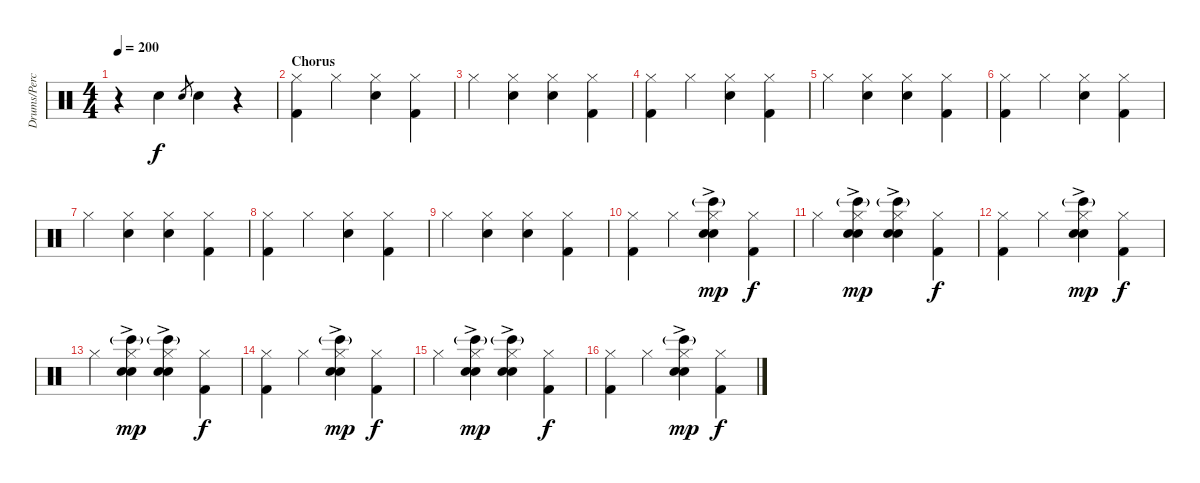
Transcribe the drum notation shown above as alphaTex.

\track ("Drums/Percussion" "Drums/Perc") {instrument percussion}
\staff {score}
\articulation defaults
\ts (4 4)
\tempo 200
\clef neutral
\ks c
r.4{dy f} "Snare (hit) 2".4 "Snare (hit) 2".8{gr} "Snare (hit) 2".4 r.4 |
\section ("" "Chorus")
("Kick (hit) 2" "Hi-Hat (closed)").4 "Hi-Hat (closed)".4 ("Snare (hit) 2" "Hi-Hat (closed)").4 ("Kick (hit) 2" "Hi-Hat (closed)").4 |
"Hi-Hat (closed)".4 ("Snare (hit) 2" "Hi-Hat (closed)").4 ("Snare (hit) 2" "Hi-Hat (closed)").4 ("Kick (hit) 2" "Hi-Hat (closed)").4 |
("Kick (hit) 2" "Hi-Hat (closed)").4 "Hi-Hat (closed)".4 ("Snare (hit) 2" "Hi-Hat (closed)").4 ("Kick (hit) 2" "Hi-Hat (closed)").4 |
"Hi-Hat (closed)".4 ("Snare (hit) 2" "Hi-Hat (closed)").4 ("Snare (hit) 2" "Hi-Hat (closed)").4 ("Kick (hit) 2" "Hi-Hat (closed)").4 |
("Kick (hit) 2" "Hi-Hat (closed)").4 "Hi-Hat (closed)".4 ("Snare (hit) 2" "Hi-Hat (closed)").4 ("Kick (hit) 2" "Hi-Hat (closed)").4 |
"Hi-Hat (closed)".4 ("Snare (hit) 2" "Hi-Hat (closed)").4 ("Snare (hit) 2" "Hi-Hat (closed)").4 ("Kick (hit) 2" "Hi-Hat (closed)").4 |
("Kick (hit) 2" "Hi-Hat (closed)").4 "Hi-Hat (closed)".4 ("Snare (hit) 2" "Hi-Hat (closed)").4 ("Kick (hit) 2" "Hi-Hat (closed)").4 |
"Hi-Hat (closed)".4 ("Snare (hit) 2" "Hi-Hat (closed)").4 ("Snare (hit) 2" "Hi-Hat (closed)").4 ("Kick (hit) 2" "Hi-Hat (closed)").4 |
("Kick (hit) 2" "Hi-Hat (closed)").4 "Hi-Hat (closed)".4 ("Snare (hit) 2" "Hi-Hat (closed)" "Hand Clap (hit)"{ac} "Bongo High (hit)"{g}).4{dy mp} ("Kick (hit) 2" "Hi-Hat (closed)").4{dy f} |
"Hi-Hat (closed)".4 ("Snare (hit) 2" "Hi-Hat (closed)" "Hand Clap (hit)"{ac} "Bongo High (hit)"{g}).4{dy mp} ("Snare (hit) 2" "Hi-Hat (closed)" "Hand Clap (hit)"{ac} "Bongo High (hit)"{g}).4 ("Kick (hit) 2" "Hi-Hat (closed)").4{dy f} |
("Kick (hit) 2" "Hi-Hat (closed)").4 "Hi-Hat (closed)".4 ("Snare (hit) 2" "Hi-Hat (closed)" "Hand Clap (hit)"{ac} "Bongo High (hit)"{g}).4{dy mp} ("Kick (hit) 2" "Hi-Hat (closed)").4{dy f} |
"Hi-Hat (closed)".4 ("Snare (hit) 2" "Hi-Hat (closed)" "Hand Clap (hit)"{ac} "Bongo High (hit)"{g}).4{dy mp} ("Snare (hit) 2" "Hi-Hat (closed)" "Hand Clap (hit)"{ac} "Bongo High (hit)"{g}).4 ("Kick (hit) 2" "Hi-Hat (closed)").4{dy f} |
("Kick (hit) 2" "Hi-Hat (closed)").4 "Hi-Hat (closed)".4 ("Snare (hit) 2" "Hi-Hat (closed)" "Hand Clap (hit)"{ac} "Bongo High (hit)"{g}).4{dy mp} ("Kick (hit) 2" "Hi-Hat (closed)").4{dy f} |
"Hi-Hat (closed)".4 ("Snare (hit) 2" "Hi-Hat (closed)" "Hand Clap (hit)"{ac} "Bongo High (hit)"{g}).4{dy mp} ("Snare (hit) 2" "Hi-Hat (closed)" "Hand Clap (hit)"{ac} "Bongo High (hit)"{g}).4 ("Kick (hit) 2" "Hi-Hat (closed)").4{dy f} |
("Kick (hit) 2" "Hi-Hat (closed)").4 "Hi-Hat (closed)".4 ("Snare (hit) 2" "Hi-Hat (closed)" "Hand Clap (hit)"{ac} "Bongo High (hit)"{g}).4{dy mp} ("Kick (hit) 2" "Hi-Hat (closed)").4{dy f}
